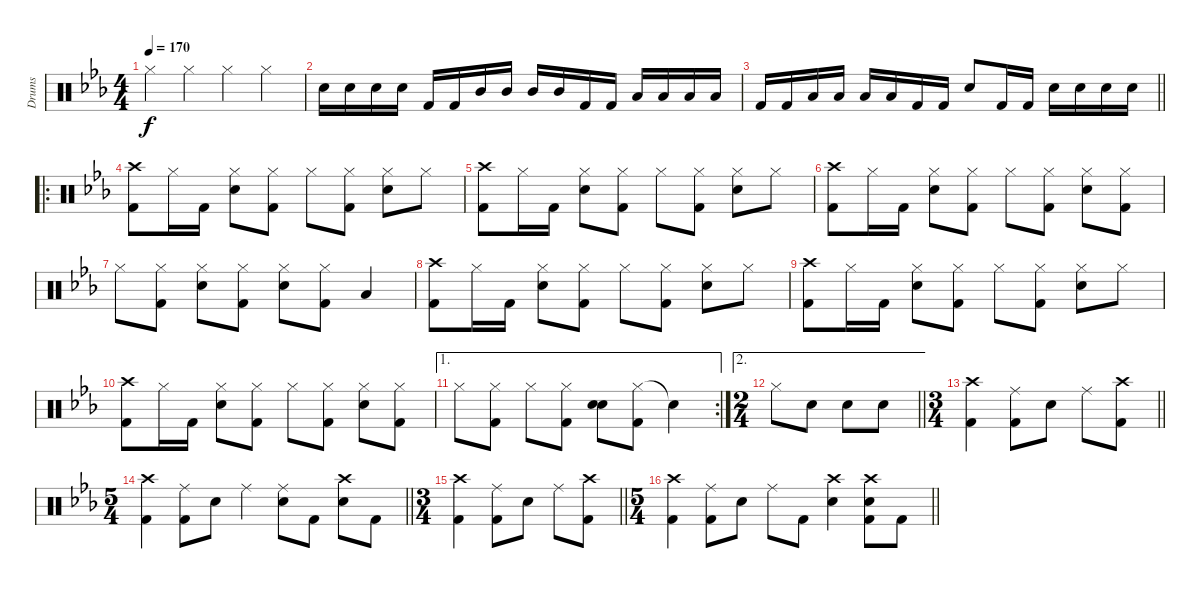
\track ("Drums" "Drums") {instrument percussion}
\staff {score}
\articulation defaults
\ts (4 4)
\tempo 170
\clef neutral
\ks eb "Hi-Hat (closed)".4{dy f} "Hi-Hat (closed)".4 "Hi-Hat (closed)".4 "Hi-Hat (closed)".4
|
"Snare (hit) 2".16 "Snare (hit) 2".16 "Snare (hit) 2".16 "Snare (hit) 2".16 "Kick (hit) 2".16 "Kick (hit) 2".16 "Mid Tom (hit)".16 "Mid Tom (hit)".16 "Mid Tom (hit)".16 "Mid Tom (hit)".16 "Kick (hit) 2".16 "Kick (hit) 2".16 "Low Tom (hit)".16 "Low Tom (hit)".16 "Low Tom (hit)".16 "Low Tom (hit)".16 |
\barLineRight lightlight "Kick (hit) 2".16 "Kick (hit) 2".16 "Low Floor Tom (hit)".16 "Low Floor Tom (hit)".16 "Low Floor Tom (hit)".16 "Low Floor Tom (hit)".16 "Kick (hit) 2".16 "Kick (hit) 2".16 "Snare (hit) 2".8 "Kick (hit) 2".16 "Kick (hit) 2".16 "Snare (hit) 2".16 "Snare (hit) 2".16 "Snare (hit) 2".16 "Snare (hit) 2".16
|
\ro
("Crash high (hit)" "Kick (hit) 2").8 "Hi-Hat (closed)".16 "Kick (hit) 2".16 ("Hi-Hat (closed)" "Snare (hit) 2").8 ("Hi-Hat (closed)" "Kick (hit) 2").8 "Hi-Hat (closed)".8 ("Hi-Hat (closed)" "Kick (hit) 2").8 ("Hi-Hat (closed)" "Snare (hit) 2").8 "Hi-Hat (closed)".8 |
("Crash high (hit)" "Kick (hit) 2").8 "Hi-Hat (closed)".16 "Kick (hit) 2".16 ("Hi-Hat (closed)" "Snare (hit) 2").8 ("Hi-Hat (closed)" "Kick (hit) 2").8 "Hi-Hat (closed)".8 ("Hi-Hat (closed)" "Kick (hit) 2").8 ("Hi-Hat (closed)" "Snare (hit) 2").8 "Hi-Hat (closed)".8 |
("Crash high (hit)" "Kick (hit) 2").8 "Hi-Hat (closed)".16 "Kick (hit) 2".16 ("Hi-Hat (closed)" "Snare (hit) 2").8 ("Hi-Hat (closed)" "Kick (hit) 2").8 "Hi-Hat (closed)".8 ("Hi-Hat (closed)" "Kick (hit) 2").8 ("Hi-Hat (closed)" "Snare (hit) 2").8 ("Hi-Hat (closed)" "Kick (hit) 2").8 |
"Hi-Hat (closed)".8 ("Hi-Hat (closed)" "Kick (hit) 2").8 ("Hi-Hat (closed)" "Snare (hit) 2").8 ("Hi-Hat (closed)" "Kick (hit) 2").8 ("Hi-Hat (closed)" "Snare (hit) 2").8 ("Hi-Hat (closed)" "Kick (hit) 2").8 "Low Floor Tom (hit)".4 |
("Crash high (hit)" "Kick (hit) 2").8 "Hi-Hat (closed)".16 "Kick (hit) 2".16 ("Hi-Hat (closed)" "Snare (hit) 2").8 ("Hi-Hat (closed)" "Kick (hit) 2").8 "Hi-Hat (closed)".8 ("Hi-Hat (closed)" "Kick (hit) 2").8 ("Hi-Hat (closed)" "Snare (hit) 2").8 "Hi-Hat (closed)".8 |
("Crash high (hit)" "Kick (hit) 2").8 "Hi-Hat (closed)".16 "Kick (hit) 2".16 ("Hi-Hat (closed)" "Snare (hit) 2").8 ("Hi-Hat (closed)" "Kick (hit) 2").8 "Hi-Hat (closed)".8 ("Hi-Hat (closed)" "Kick (hit) 2").8 ("Hi-Hat (closed)" "Snare (hit) 2").8 "Hi-Hat (closed)".8 |
("Crash high (hit)" "Kick (hit) 2").8 "Hi-Hat (closed)".16 "Kick (hit) 2".16 ("Hi-Hat (closed)" "Snare (hit) 2").8 ("Hi-Hat (closed)" "Kick (hit) 2").8 "Hi-Hat (closed)".8 ("Hi-Hat (closed)" "Kick (hit) 2").8 ("Hi-Hat (closed)" "Snare (hit) 2").8 ("Hi-Hat (closed)" "Kick (hit) 2").8 |
\ae 1
\rc 2 "Hi-Hat (closed)".8
("Hi-Hat (closed)" "Kick (hit) 2").8 "Hi-Hat (closed)".8 ("Hi-Hat (closed)" "Kick (hit) 2").8 ("Snare (hit) 2" "Snare (hit) 2").8 ("Hi-Hat (closed)" "Kick (hit) 2").8 "Snare (hit)"{t}.4 |
\ae 2
\ts (2 4)
\barLineRight lightlight "Hi-Hat (closed)".8 "Snare (hit) 2".8 "Snare (hit) 2".8 "Snare (hit) 2".8
|
\ts (3 4)
\barLineRight lightlight
("Crash high (hit)" "Kick (hit) 2").4 ("Ride (middle)" "Kick (hit) 2").8 "Snare (hit) 2".8 "Ride (middle)".8 ("Crash high (hit)" "Kick (hit) 2").8 |
\ts (5 4)
\barLineRight lightlight
("Crash high (hit)" "Kick (hit) 2").4 ("Ride (middle)" "Kick (hit) 2").8 "Snare (hit) 2".8 "Ride (middle)".4 ("Ride (middle)" "Snare (hit) 2").8 "Kick (hit) 2".8 ("Crash high (hit)" "Snare (hit) 2").8 "Kick (hit) 2".8 |
\ts (3 4)
\barLineRight lightlight
("Crash high (hit)" "Kick (hit) 2").4 ("Ride (middle)" "Kick (hit) 2").8 "Snare (hit) 2".8 "Ride (middle)".8 ("Crash high (hit)" "Kick (hit) 2").8 |
\ts (5 4)
\barLineRight lightlight
("Crash high (hit)" "Kick (hit) 2").4 ("Ride (middle)" "Kick (hit) 2").8 "Snare (hit) 2".8 "Ride (middle)".8 "Kick (hit) 2".8 ("Crash high (hit)" "Snare (hit) 2").4 ("Crash high (hit)" "Snare (hit) 2" "Kick (hit) 2").8 "Kick (hit) 2".8
